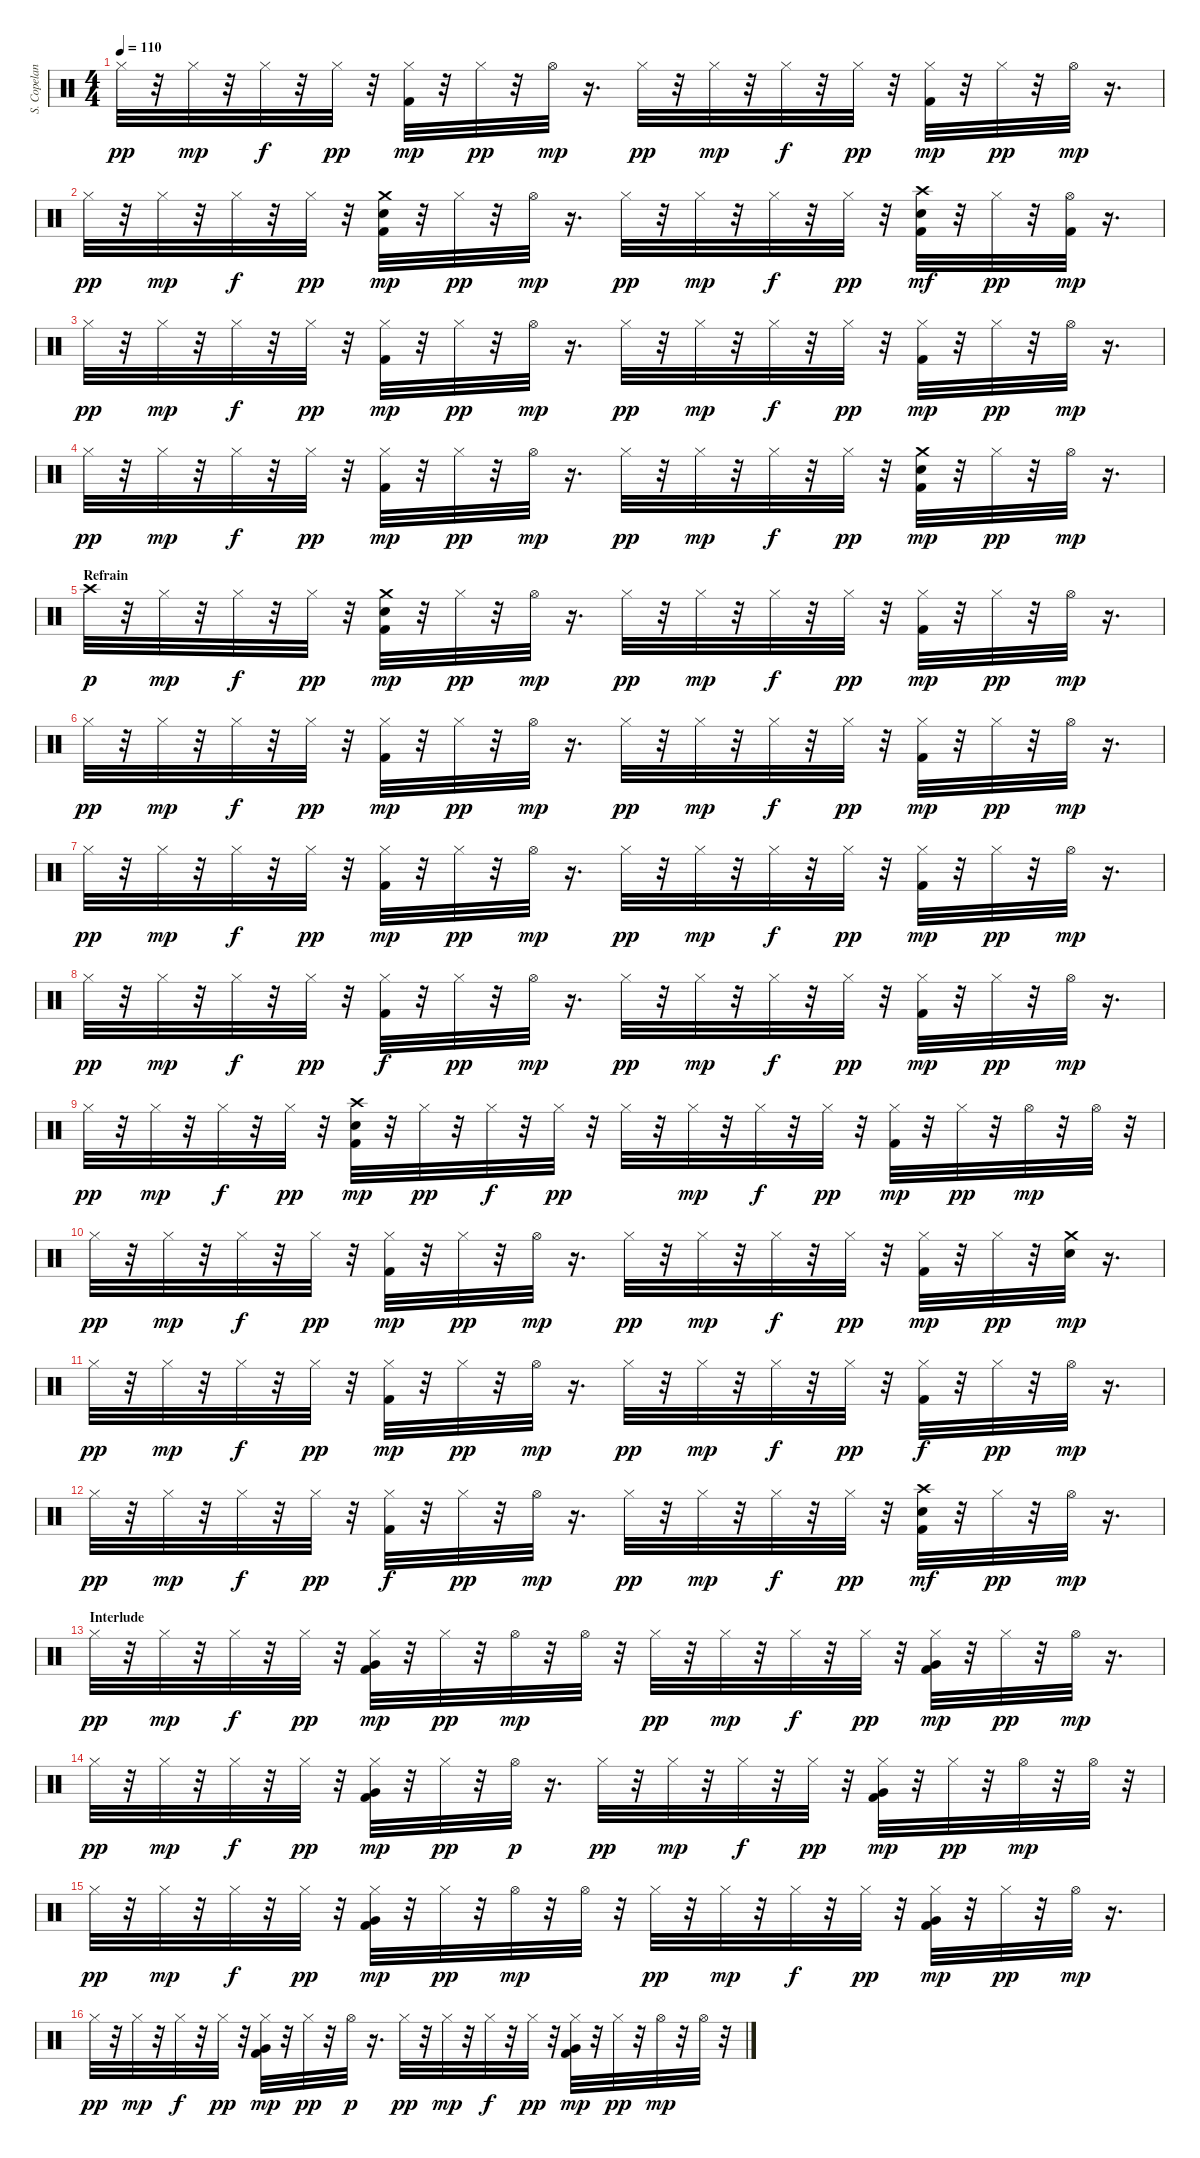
\track ("S. Copeland" "S. Copelan") {instrument percussion}
\staff {score}
\articulation defaults
\ts (4 4)
\tempo 110
\clef neutral
\ks c "Hi-Hat (closed)".32{dy pp}
r.32 "Hi-Hat (closed)".32{dy mp} r.32 "Hi-Hat (closed)".32{dy f} r.32 "Hi-Hat (closed)".32{dy pp} r.32 ("Kick (hit) 2" "Hi-Hat (closed)").32{dy mp} r.32 "Hi-Hat (closed)".32{dy pp} r.32 "Hi-Hat (open)".32{dy mp} r.16{d} "Hi-Hat (closed)".32{dy pp} r.32 "Hi-Hat (closed)".32{dy mp} r.32 "Hi-Hat (closed)".32{dy f} r.32 "Hi-Hat (closed)".32{dy pp} r.32 ("Kick (hit) 2" "Hi-Hat (closed)").32{dy mp} r.32 "Hi-Hat (closed)".32{dy pp} r.32 "Hi-Hat (open)".32{dy mp} r.16{d} |
"Hi-Hat (closed)".32{dy pp} r.32 "Hi-Hat (closed)".32{dy mp} r.32 "Hi-Hat (closed)".32{dy f} r.32 "Hi-Hat (closed)".32{dy pp} r.32 ("Kick (hit) 2" "Electric Snare (hit)" "Crash medium (hit)").32{dy mp} r.32 "Hi-Hat (closed)".32{dy pp} r.32 "Hi-Hat (open)".32{dy mp} r.16{d} "Hi-Hat (closed)".32{dy pp} r.32 "Hi-Hat (closed)".32{dy mp} r.32 "Hi-Hat (closed)".32{dy f} r.32 "Hi-Hat (closed)".32{dy pp} r.32 ("Kick (hit) 2" "Electric Snare (hit)" "Crash high (hit)").32{dy mf} r.32 "Hi-Hat (closed)".32{dy pp} r.32 ("Kick (hit) 2" "Hi-Hat (open)").32{dy mp} r.16{d} |
"Hi-Hat (closed)".32{dy pp} r.32 "Hi-Hat (closed)".32{dy mp} r.32 "Hi-Hat (closed)".32{dy f} r.32 "Hi-Hat (closed)".32{dy pp} r.32 ("Kick (hit) 2" "Hi-Hat (closed)").32{dy mp} r.32 "Hi-Hat (closed)".32{dy pp} r.32 "Hi-Hat (open)".32{dy mp} r.16{d} "Hi-Hat (closed)".32{dy pp} r.32 "Hi-Hat (closed)".32{dy mp} r.32 "Hi-Hat (closed)".32{dy f} r.32 "Hi-Hat (closed)".32{dy pp} r.32 ("Kick (hit) 2" "Hi-Hat (closed)").32{dy mp} r.32 "Hi-Hat (closed)".32{dy pp} r.32 "Hi-Hat (open)".32{dy mp} r.16{d} |
"Hi-Hat (closed)".32{dy pp} r.32 "Hi-Hat (closed)".32{dy mp} r.32 "Hi-Hat (closed)".32{dy f} r.32 "Hi-Hat (closed)".32{dy pp} r.32 ("Kick (hit) 2" "Hi-Hat (closed)").32{dy mp} r.32 "Hi-Hat (closed)".32{dy pp} r.32 "Hi-Hat (open)".32{dy mp} r.16{d} "Hi-Hat (closed)".32{dy pp} r.32 "Hi-Hat (closed)".32{dy mp} r.32 "Hi-Hat (closed)".32{dy f} r.32 "Hi-Hat (closed)".32{dy pp} r.32 ("Kick (hit) 2" "Electric Snare (hit)" "Crash medium (hit)").32{dy mp} r.32 "Hi-Hat (closed)".32{dy pp} r.32 "Hi-Hat (open)".32{dy mp} r.16{d} |
\section ("" "Refrain")
"Crash high (hit)".32{dy p} r.32 "Hi-Hat (closed)".32{dy mp} r.32 "Hi-Hat (closed)".32{dy f} r.32 "Hi-Hat (closed)".32{dy pp} r.32 ("Kick (hit) 2" "Electric Snare (hit)" "Crash medium (hit)").32{dy mp} r.32 "Hi-Hat (closed)".32{dy pp} r.32 "Hi-Hat (open)".32{dy mp} r.16{d} "Hi-Hat (closed)".32{dy pp} r.32 "Hi-Hat (closed)".32{dy mp} r.32 "Hi-Hat (closed)".32{dy f} r.32 "Hi-Hat (closed)".32{dy pp} r.32 ("Kick (hit) 2" "Hi-Hat (closed)").32{dy mp} r.32 "Hi-Hat (closed)".32{dy pp} r.32 "Hi-Hat (open)".32{dy mp} r.16{d} |
"Hi-Hat (closed)".32{dy pp} r.32 "Hi-Hat (closed)".32{dy mp} r.32 "Hi-Hat (closed)".32{dy f} r.32 "Hi-Hat (closed)".32{dy pp} r.32 ("Kick (hit) 2" "Hi-Hat (closed)").32{dy mp} r.32 "Hi-Hat (closed)".32{dy pp} r.32 "Hi-Hat (open)".32{dy mp} r.16{d} "Hi-Hat (closed)".32{dy pp} r.32 "Hi-Hat (closed)".32{dy mp} r.32 "Hi-Hat (closed)".32{dy f} r.32 "Hi-Hat (closed)".32{dy pp} r.32 ("Kick (hit) 2" "Hi-Hat (closed)").32{dy mp} r.32 "Hi-Hat (closed)".32{dy pp} r.32 "Hi-Hat (open)".32{dy mp} r.16{d} |
"Hi-Hat (closed)".32{dy pp} r.32 "Hi-Hat (closed)".32{dy mp} r.32 "Hi-Hat (closed)".32{dy f} r.32 "Hi-Hat (closed)".32{dy pp} r.32 ("Kick (hit) 2" "Hi-Hat (closed)").32{dy mp} r.32 "Hi-Hat (closed)".32{dy pp} r.32 "Hi-Hat (open)".32{dy mp} r.16{d} "Hi-Hat (closed)".32{dy pp} r.32 "Hi-Hat (closed)".32{dy mp} r.32 "Hi-Hat (closed)".32{dy f} r.32 "Hi-Hat (closed)".32{dy pp} r.32 ("Kick (hit) 2" "Hi-Hat (closed)").32{dy mp} r.32 "Hi-Hat (closed)".32{dy pp} r.32 "Hi-Hat (open)".32{dy mp} r.16{d} |
"Hi-Hat (closed)".32{dy pp} r.32 "Hi-Hat (closed)".32{dy mp} r.32 "Hi-Hat (closed)".32{dy f} r.32 "Hi-Hat (closed)".32{dy pp} r.32 ("Kick (hit) 2" "Hi-Hat (closed)").32{dy f} r.32 "Hi-Hat (closed)".32{dy pp} r.32 "Hi-Hat (open)".32{dy mp} r.16{d} "Hi-Hat (closed)".32{dy pp} r.32 "Hi-Hat (closed)".32{dy mp} r.32 "Hi-Hat (closed)".32{dy f} r.32 "Hi-Hat (closed)".32{dy pp} r.32 ("Kick (hit) 2" "Hi-Hat (closed)").32{dy mp} r.32 "Hi-Hat (closed)".32{dy pp} r.32 "Hi-Hat (open)".32{dy mp} r.16{d} |
"Hi-Hat (closed)".32{dy pp} r.32 "Hi-Hat (closed)".32{dy mp} r.32 "Hi-Hat (closed)".32{dy f} r.32 "Hi-Hat (closed)".32{dy pp} r.32 ("Kick (hit) 2" "Electric Snare (hit)" "Crash high (hit)").32{dy mp} r.32 "Hi-Hat (closed)".32{dy pp} r.32 "Hi-Hat (closed)".32{dy f} r.32 "Hi-Hat (closed)".32{dy pp} r.32 "Hi-Hat (closed)".32 r.32 "Hi-Hat (closed)".32{dy mp} r.32 "Hi-Hat (closed)".32{dy f} r.32 "Hi-Hat (closed)".32{dy pp} r.32 ("Kick (hit) 2" "Hi-Hat (closed)").32{dy mp} r.32 "Hi-Hat (closed)".32{dy pp} r.32 "Hi-Hat (open)".32{dy mp} r.32 "Hi-Hat (open)".32 r.32 |
"Hi-Hat (closed)".32{dy pp} r.32 "Hi-Hat (closed)".32{dy mp} r.32 "Hi-Hat (closed)".32{dy f} r.32 "Hi-Hat (closed)".32{dy pp} r.32 ("Kick (hit) 2" "Hi-Hat (closed)").32{dy mp} r.32 "Hi-Hat (closed)".32{dy pp} r.32 "Hi-Hat (open)".32{dy mp} r.16{d} "Hi-Hat (closed)".32{dy pp} r.32 "Hi-Hat (closed)".32{dy mp} r.32 "Hi-Hat (closed)".32{dy f} r.32 "Hi-Hat (closed)".32{dy pp} r.32 ("Kick (hit) 2" "Hi-Hat (closed)").32{dy mp} r.32 "Hi-Hat (closed)".32{dy pp} r.32 ("Electric Snare (hit)" "Crash medium (hit)").32{dy mp} r.16{d} |
"Hi-Hat (closed)".32{dy pp} r.32 "Hi-Hat (closed)".32{dy mp} r.32 "Hi-Hat (closed)".32{dy f} r.32 "Hi-Hat (closed)".32{dy pp} r.32 ("Kick (hit) 2" "Hi-Hat (closed)").32{dy mp} r.32 "Hi-Hat (closed)".32{dy pp} r.32 "Hi-Hat (open)".32{dy mp} r.16{d} "Hi-Hat (closed)".32{dy pp} r.32 "Hi-Hat (closed)".32{dy mp} r.32 "Hi-Hat (closed)".32{dy f} r.32 "Hi-Hat (closed)".32{dy pp} r.32 ("Kick (hit) 2" "Hi-Hat (closed)").32{dy f} r.32 "Hi-Hat (closed)".32{dy pp} r.32 "Hi-Hat (open)".32{dy mp} r.16{d} |
"Hi-Hat (closed)".32{dy pp} r.32 "Hi-Hat (closed)".32{dy mp} r.32 "Hi-Hat (closed)".32{dy f} r.32 "Hi-Hat (closed)".32{dy pp} r.32 ("Kick (hit) 2" "Hi-Hat (closed)").32{dy f} r.32 "Hi-Hat (closed)".32{dy pp} r.32 "Hi-Hat (open)".32{dy mp} r.16{d} "Hi-Hat (closed)".32{dy pp} r.32 "Hi-Hat (closed)".32{dy mp} r.32 "Hi-Hat (closed)".32{dy f} r.32 "Hi-Hat (closed)".32{dy pp} r.32 ("Kick (hit) 2" "Electric Snare (hit)" "Crash high (hit)").32{dy mf} r.32 "Hi-Hat (closed)".32{dy pp} r.32 "Hi-Hat (open)".32{dy mp} r.16{d} |
\section ("" "Interlude")
"Hi-Hat (closed)".32{dy pp} r.32 "Hi-Hat (closed)".32{dy mp} r.32 "Hi-Hat (closed)".32{dy f} r.32 "Hi-Hat (closed)".32{dy pp} r.32 ("Kick (hit) 2" "Hi-Hat (closed)" "Very Low Tom (hit)").32{dy mp} r.32 "Hi-Hat (closed)".32{dy pp} r.32 "Hi-Hat (open)".32{dy mp} r.32 "Hi-Hat (open)".32 r.32 "Hi-Hat (closed)".32{dy pp} r.32 "Hi-Hat (closed)".32{dy mp} r.32 "Hi-Hat (closed)".32{dy f} r.32 "Hi-Hat (closed)".32{dy pp} r.32 ("Kick (hit) 2" "Hi-Hat (closed)" "Very Low Tom (hit)").32{dy mp} r.32 "Hi-Hat (closed)".32{dy pp} r.32 "Hi-Hat (open)".32{dy mp} r.16{d} |
"Hi-Hat (closed)".32{dy pp} r.32 "Hi-Hat (closed)".32{dy mp} r.32 "Hi-Hat (closed)".32{dy f} r.32 "Hi-Hat (closed)".32{dy pp} r.32 ("Kick (hit) 2" "Hi-Hat (closed)" "Very Low Tom (hit)").32{dy mp} r.32 "Hi-Hat (closed)".32{dy pp} r.32 "Hi-Hat (open)".32{dy p} r.16{d} "Hi-Hat (closed)".32{dy pp} r.32 "Hi-Hat (closed)".32{dy mp} r.32 "Hi-Hat (closed)".32{dy f} r.32 "Hi-Hat (closed)".32{dy pp} r.32 ("Kick (hit) 2" "Hi-Hat (closed)" "Very Low Tom (hit)").32{dy mp} r.32 "Hi-Hat (closed)".32{dy pp} r.32 "Hi-Hat (open)".32{dy mp} r.32 "Hi-Hat (open)".32 r.32 |
"Hi-Hat (closed)".32{dy pp} r.32 "Hi-Hat (closed)".32{dy mp} r.32 "Hi-Hat (closed)".32{dy f} r.32 "Hi-Hat (closed)".32{dy pp} r.32 ("Kick (hit) 2" "Hi-Hat (closed)" "Very Low Tom (hit)").32{dy mp} r.32 "Hi-Hat (closed)".32{dy pp} r.32 "Hi-Hat (open)".32{dy mp} r.32 "Hi-Hat (open)".32 r.32 "Hi-Hat (closed)".32{dy pp} r.32 "Hi-Hat (closed)".32{dy mp} r.32 "Hi-Hat (closed)".32{dy f} r.32 "Hi-Hat (closed)".32{dy pp} r.32 ("Kick (hit) 2" "Hi-Hat (closed)" "Very Low Tom (hit)").32{dy mp} r.32 "Hi-Hat (closed)".32{dy pp} r.32 "Hi-Hat (open)".32{dy mp} r.16{d} |
"Hi-Hat (closed)".32{dy pp} r.32 "Hi-Hat (closed)".32{dy mp} r.32 "Hi-Hat (closed)".32{dy f} r.32 "Hi-Hat (closed)".32{dy pp} r.32 ("Kick (hit) 2" "Hi-Hat (closed)" "Very Low Tom (hit)").32{dy mp} r.32 "Hi-Hat (closed)".32{dy pp} r.32 "Hi-Hat (open)".32{dy p} r.16{d} "Hi-Hat (closed)".32{dy pp} r.32 "Hi-Hat (closed)".32{dy mp} r.32 "Hi-Hat (closed)".32{dy f} r.32 "Hi-Hat (closed)".32{dy pp} r.32 ("Kick (hit) 2" "Hi-Hat (closed)" "Very Low Tom (hit)").32{dy mp} r.32 "Hi-Hat (closed)".32{dy pp} r.32 "Hi-Hat (open)".32{dy mp} r.32 "Hi-Hat (open)".32 r.32
